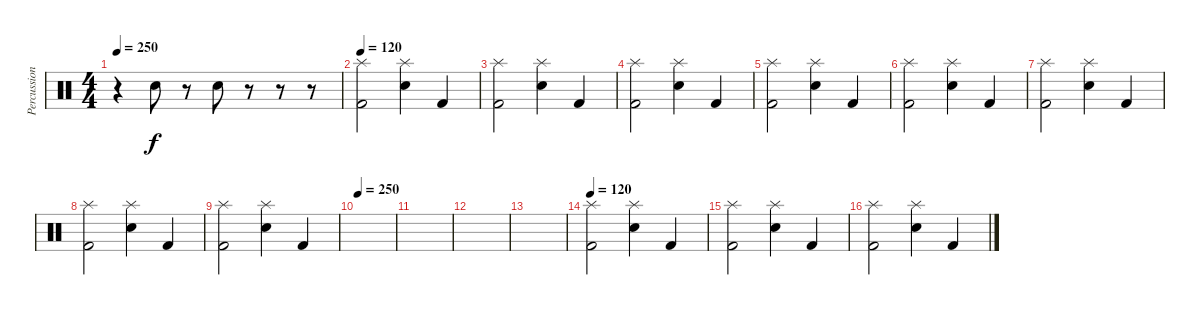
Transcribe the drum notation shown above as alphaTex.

\track ("Percussions" "Percussion") {instrument percussion}
\staff {score}
\articulation defaults
\ts (4 4)
\tempo 250
\clef neutral
\ks c
r.4{dy f} "Snare (hit) 2".8 r.8 "Snare (hit) 2".8 r.8 r.8 r.8 |
\tempo 120
("Splash (hit)" "Kick (hit) 2").2 ("Splash (hit)" "Snare (hit) 2").4 "Kick (hit) 2".4 |
("Splash (hit)" "Kick (hit) 2").2 ("Splash (hit)" "Snare (hit) 2").4 "Kick (hit) 2".4 |
("Splash (hit)" "Kick (hit) 2").2 ("Splash (hit)" "Snare (hit) 2").4 "Kick (hit) 2".4 |
("Splash (hit)" "Kick (hit) 2").2 ("Splash (hit)" "Snare (hit) 2").4 "Kick (hit) 2".4 |
("Splash (hit)" "Kick (hit) 2").2 ("Splash (hit)" "Snare (hit) 2").4 "Kick (hit) 2".4 |
("Splash (hit)" "Kick (hit) 2").2 ("Splash (hit)" "Snare (hit) 2").4 "Kick (hit) 2".4 |
("Splash (hit)" "Kick (hit) 2").2 ("Splash (hit)" "Snare (hit) 2").4 "Kick (hit) 2".4 |
("Splash (hit)" "Kick (hit) 2").2 ("Splash (hit)" "Snare (hit) 2").4 "Kick (hit) 2".4 |
\tempo 250
|
|
|
|
\tempo 120
("Splash (hit)" "Kick (hit) 2").2 ("Splash (hit)" "Snare (hit) 2").4 "Kick (hit) 2".4 |
("Splash (hit)" "Kick (hit) 2").2 ("Splash (hit)" "Snare (hit) 2").4 "Kick (hit) 2".4 |
("Splash (hit)" "Kick (hit) 2").2 ("Splash (hit)" "Snare (hit) 2").4 "Kick (hit) 2".4
